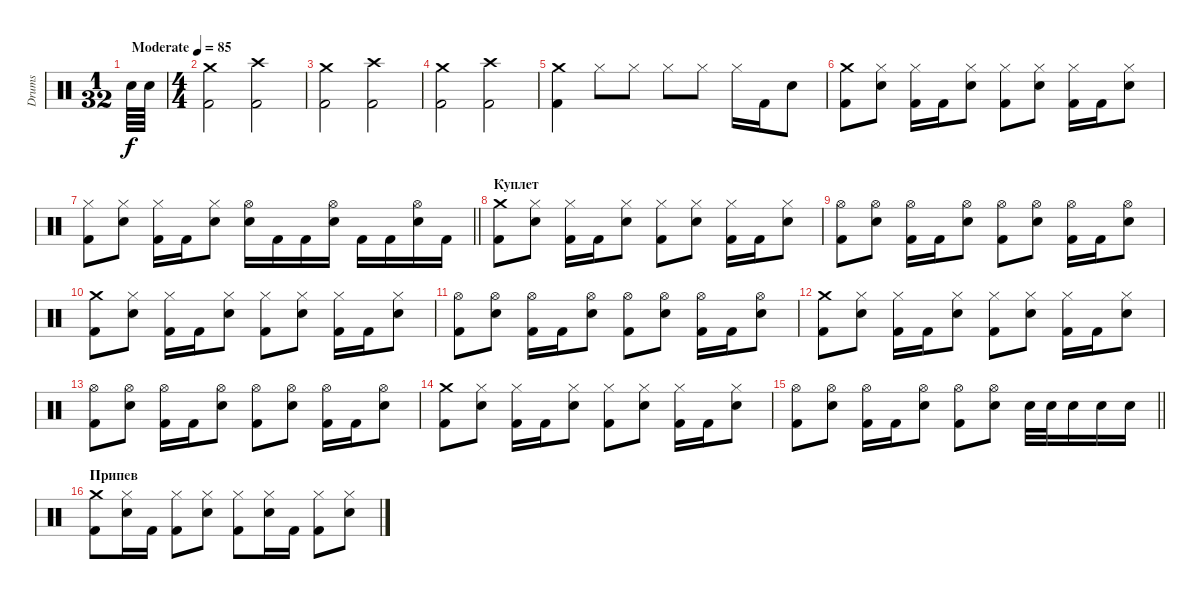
\track ("Drums" "Drums") {instrument percussion}
\staff {score}
\articulation defaults
\ts (1 32)
\tempo (85 "Moderate")
\clef neutral
\ks c "Snare (hit) 2".64{dy f} "Snare (hit) 2".64
|
\ts (4 4)
("Crash medium (hit)" "Kick (hit) 2").2 ("Crash high (hit)" "Kick (hit) 2").2 |
("Crash medium (hit)" "Kick (hit) 2").2 ("Crash high (hit)" "Kick (hit) 2").2 |
("Crash medium (hit)" "Kick (hit) 2").2 ("Crash high (hit)" "Kick (hit) 2").2 |
("Crash medium (hit)" "Kick (hit) 2").4 "Hi-Hat (closed)".8 "Hi-Hat (closed)".8 "Hi-Hat (closed)".8 "Hi-Hat (closed)".8 "Hi-Hat (closed)".16 "Kick (hit) 2".16 "Snare (hit) 2".8 |
("Crash medium (hit)" "Kick (hit) 2").8 ("Hi-Hat (closed)" "Snare (hit) 2").8 ("Hi-Hat (closed)" "Kick (hit) 2").16 "Kick (hit) 2".16 ("Hi-Hat (closed)" "Snare (hit) 2").8 ("Hi-Hat (closed)" "Kick (hit) 2").8 ("Hi-Hat (closed)" "Snare (hit) 2").8 ("Hi-Hat (closed)" "Kick (hit) 2").16 "Kick (hit) 2".16 ("Hi-Hat (closed)" "Snare (hit) 2").8 |
\barLineRight lightlight
("Hi-Hat (closed)" "Kick (hit) 2").8 ("Hi-Hat (closed)" "Snare (hit) 2").8 ("Hi-Hat (closed)" "Kick (hit) 2").16 "Kick (hit) 2".16 ("Hi-Hat (closed)" "Snare (hit) 2").8 ("Hi-Hat (open)" "Snare (hit) 2").16 "Kick (hit) 2".16 "Kick (hit) 2".16 ("Hi-Hat (open)" "Snare (hit) 2").16 "Kick (hit) 2".16 "Kick (hit) 2".16 ("Hi-Hat (open)" "Snare (hit) 2").16 "Kick (hit) 2".16 |
\section ("" "Куплет")
("Crash medium (hit)" "Kick (hit) 2").8 ("Hi-Hat (closed)" "Snare (hit) 2").8 ("Hi-Hat (closed)" "Kick (hit) 2").16 "Kick (hit) 2".16 ("Hi-Hat (closed)" "Snare (hit) 2").8 ("Hi-Hat (closed)" "Kick (hit) 2").8 ("Hi-Hat (closed)" "Snare (hit) 2").8 ("Hi-Hat (closed)" "Kick (hit) 2").16 "Kick (hit) 2".16 ("Hi-Hat (closed)" "Snare (hit) 2").8 |
("Hi-Hat (open)" "Kick (hit) 2").8 ("Hi-Hat (open)" "Snare (hit) 2").8 ("Hi-Hat (open)" "Kick (hit) 2").16 "Kick (hit) 2".16 ("Hi-Hat (open)" "Snare (hit) 2").8 ("Hi-Hat (open)" "Kick (hit) 2").8 ("Hi-Hat (open)" "Snare (hit) 2").8 ("Hi-Hat (open)" "Kick (hit) 2").16 "Kick (hit) 2".16 ("Hi-Hat (open)" "Snare (hit) 2").8 |
("Crash medium (hit)" "Kick (hit) 2").8 ("Hi-Hat (closed)" "Snare (hit) 2").8 ("Hi-Hat (closed)" "Kick (hit) 2").16 "Kick (hit) 2".16 ("Hi-Hat (closed)" "Snare (hit) 2").8 ("Hi-Hat (closed)" "Kick (hit) 2").8 ("Hi-Hat (closed)" "Snare (hit) 2").8 ("Hi-Hat (closed)" "Kick (hit) 2").16 "Kick (hit) 2".16 ("Hi-Hat (closed)" "Snare (hit) 2").8 |
("Hi-Hat (open)" "Kick (hit) 2").8 ("Hi-Hat (open)" "Snare (hit) 2").8 ("Hi-Hat (open)" "Kick (hit) 2").16 "Kick (hit) 2".16 ("Hi-Hat (open)" "Snare (hit) 2").8 ("Hi-Hat (open)" "Kick (hit) 2").8 ("Hi-Hat (open)" "Snare (hit) 2").8 ("Hi-Hat (open)" "Kick (hit) 2").16 "Kick (hit) 2".16 ("Hi-Hat (open)" "Snare (hit) 2").8 |
("Crash medium (hit)" "Kick (hit) 2").8 ("Hi-Hat (closed)" "Snare (hit) 2").8 ("Hi-Hat (closed)" "Kick (hit) 2").16 "Kick (hit) 2".16 ("Hi-Hat (closed)" "Snare (hit) 2").8 ("Hi-Hat (closed)" "Kick (hit) 2").8 ("Hi-Hat (closed)" "Snare (hit) 2").8 ("Hi-Hat (closed)" "Kick (hit) 2").16 "Kick (hit) 2".16 ("Hi-Hat (closed)" "Snare (hit) 2").8 |
("Hi-Hat (open)" "Kick (hit) 2").8 ("Hi-Hat (open)" "Snare (hit) 2").8 ("Hi-Hat (open)" "Kick (hit) 2").16 "Kick (hit) 2".16 ("Hi-Hat (open)" "Snare (hit) 2").8 ("Hi-Hat (open)" "Kick (hit) 2").8 ("Hi-Hat (open)" "Snare (hit) 2").8 ("Hi-Hat (open)" "Kick (hit) 2").16 "Kick (hit) 2".16 ("Hi-Hat (open)" "Snare (hit) 2").8 |
("Crash medium (hit)" "Kick (hit) 2").8 ("Hi-Hat (closed)" "Snare (hit) 2").8 ("Hi-Hat (closed)" "Kick (hit) 2").16 "Kick (hit) 2".16 ("Hi-Hat (closed)" "Snare (hit) 2").8 ("Hi-Hat (closed)" "Kick (hit) 2").8 ("Hi-Hat (closed)" "Snare (hit) 2").8 ("Hi-Hat (closed)" "Kick (hit) 2").16 "Kick (hit) 2".16 ("Hi-Hat (closed)" "Snare (hit) 2").8 |
\barLineRight lightlight
("Hi-Hat (open)" "Kick (hit) 2").8 ("Hi-Hat (open)" "Snare (hit) 2").8 ("Hi-Hat (open)" "Kick (hit) 2").16 "Kick (hit) 2".16 ("Hi-Hat (open)" "Snare (hit) 2").8 ("Hi-Hat (open)" "Kick (hit) 2").8 ("Hi-Hat (open)" "Snare (hit) 2").8 "Snare (hit) 2".32 "Snare (hit) 2".32 "Snare (hit) 2".16 "Snare (hit) 2".16 "Snare (hit) 2".16 |
\section ("" "Припев")
("Crash medium (hit)" "Kick (hit) 2").8 ("Hi-Hat (closed)" "Snare (hit) 2").16 "Kick (hit) 2".16 ("Hi-Hat (closed)" "Kick (hit) 2").8 ("Hi-Hat (closed)" "Snare (hit) 2").8 ("Hi-Hat (closed)" "Kick (hit) 2").8 ("Hi-Hat (closed)" "Snare (hit) 2").16 "Kick (hit) 2".16 ("Hi-Hat (closed)" "Kick (hit) 2").8 ("Hi-Hat (closed)" "Snare (hit) 2").8
